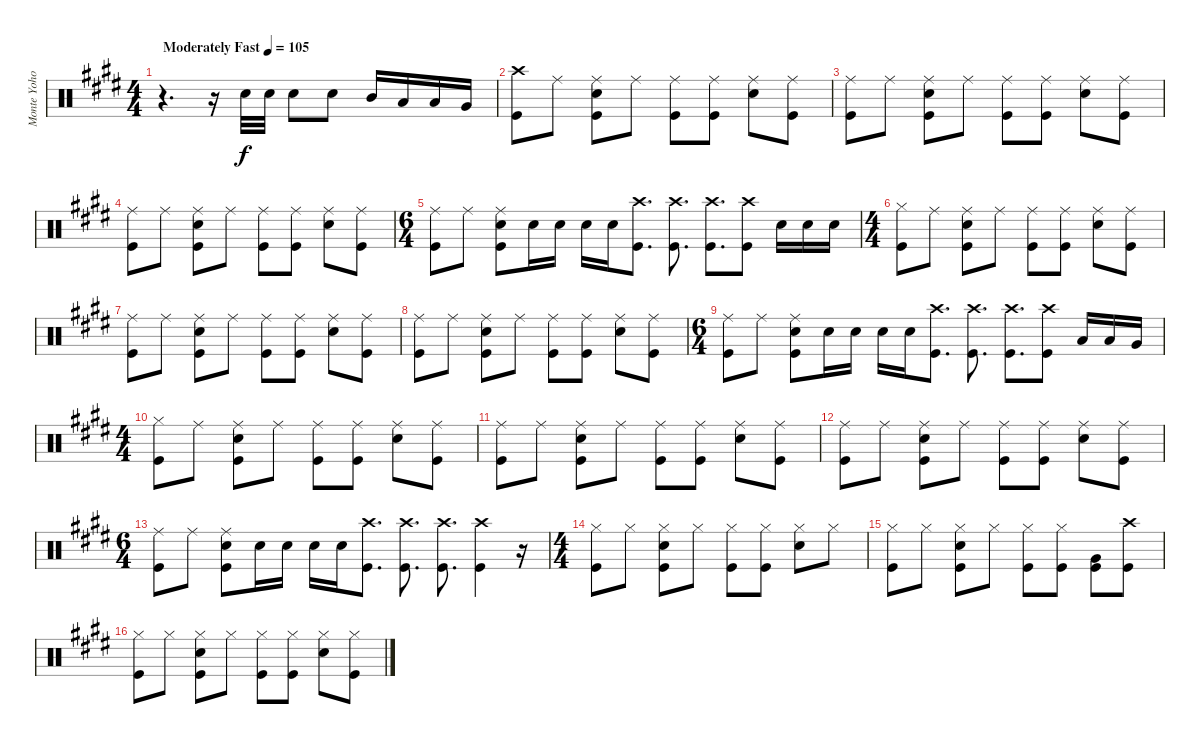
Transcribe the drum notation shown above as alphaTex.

\track ("Monte Yoho" "Monte Yoho") {instrument percussion}
\staff {score}
\articulation defaults
\ts (4 4)
\tempo (105 "Moderately Fast")
\clef neutral
\ks e
r.4{d dy f} r.16 "Snare (hit) 2".32 "Snare (hit) 2".32 "Snare (hit) 2".8 "Snare (hit) 2".8 "Mid Tom (hit)".16 "Low Tom (hit)".16 "Low Tom (hit)".16 "Very Low Tom (hit)".16 |
("Crash high (hit)" "Kick (hit)").8 "Ride (middle)".8 ("Ride (middle)" "Snare (hit) 2" "Kick (hit)").8 "Ride (middle)".8 ("Ride (middle)" "Kick (hit)").8 ("Ride (middle)" "Kick (hit)").8 ("Ride (middle)" "Snare (hit) 2").8 ("Ride (middle)" "Kick (hit)").8 |
("Ride (middle)" "Kick (hit)").8 "Ride (middle)".8 ("Ride (middle)" "Snare (hit) 2" "Kick (hit)").8 "Ride (middle)".8 ("Ride (middle)" "Kick (hit)").8 ("Ride (middle)" "Kick (hit)").8 ("Ride (middle)" "Snare (hit) 2").8 ("Ride (middle)" "Kick (hit)").8 |
("Ride (middle)" "Kick (hit)").8 "Ride (middle)".8 ("Ride (middle)" "Snare (hit) 2" "Kick (hit)").8 "Ride (middle)".8 ("Ride (middle)" "Kick (hit)").8 ("Ride (middle)" "Kick (hit)").8 ("Ride (middle)" "Snare (hit) 2").8 ("Ride (middle)" "Kick (hit)").8 |
\ts (6 4)
("Ride (middle)" "Kick (hit)").8 "Ride (middle)".8 ("Ride (middle)" "Snare (hit) 2" "Kick (hit)").8 "Snare (hit) 2".16 "Snare (hit) 2".16 "Snare (hit) 2".16 "Snare (hit) 2".16 ("Crash high (hit)" "Kick (hit)").8{d} ("Crash high (hit)" "Kick (hit)").8{d} ("Crash high (hit)" "Kick (hit)").8{d} ("Crash high (hit)" "Kick (hit)").8 "Snare (hit) 2".16 "Snare (hit) 2".16 "Snare (hit) 2".16 |
\ts (4 4)
("Hi-Hat (closed)" "Kick (hit)").8 "Ride (middle)".8 ("Ride (middle)" "Snare (hit) 2" "Kick (hit)").8 "Ride (middle)".8 ("Ride (middle)" "Kick (hit)").8 ("Ride (middle)" "Kick (hit)").8 ("Ride (middle)" "Snare (hit) 2").8 ("Ride (middle)" "Kick (hit)").8 |
("Ride (middle)" "Kick (hit)").8 "Ride (middle)".8 ("Ride (middle)" "Snare (hit) 2" "Kick (hit)").8 "Ride (middle)".8 ("Ride (middle)" "Kick (hit)").8 ("Ride (middle)" "Kick (hit)").8 ("Ride (middle)" "Snare (hit) 2").8 ("Ride (middle)" "Kick (hit)").8 |
("Ride (middle)" "Kick (hit)").8 "Ride (middle)".8 ("Ride (middle)" "Snare (hit) 2" "Kick (hit)").8 "Ride (middle)".8 ("Ride (middle)" "Kick (hit)").8 ("Ride (middle)" "Kick (hit)").8 ("Ride (middle)" "Snare (hit) 2").8 ("Ride (middle)" "Kick (hit)").8 |
\ts (6 4)
("Ride (middle)" "Kick (hit)").8 "Ride (middle)".8 ("Ride (middle)" "Snare (hit) 2" "Kick (hit)").8 "Snare (hit) 2".16 "Snare (hit) 2".16 "Snare (hit) 2".16 "Snare (hit) 2".16 ("Crash high (hit)" "Kick (hit)").8{d} ("Crash high (hit)" "Kick (hit)").8{d} ("Crash high (hit)" "Kick (hit)").8{d} ("Crash high (hit)" "Kick (hit)").8 "Low Tom (hit)".16 "Low Tom (hit)".16 "Very Low Tom (hit)".16 |
\ts (4 4)
("Hi-Hat (closed)" "Kick (hit)").8 "Ride (middle)".8 ("Ride (middle)" "Snare (hit) 2" "Kick (hit)").8 "Ride (middle)".8 ("Ride (middle)" "Kick (hit)").8 ("Ride (middle)" "Kick (hit)").8 ("Ride (middle)" "Snare (hit) 2").8 ("Ride (middle)" "Kick (hit)").8 |
("Ride (middle)" "Kick (hit)").8 "Ride (middle)".8 ("Ride (middle)" "Snare (hit) 2" "Kick (hit)").8 "Ride (middle)".8 ("Ride (middle)" "Kick (hit)").8 ("Ride (middle)" "Kick (hit)").8 ("Ride (middle)" "Snare (hit) 2").8 ("Ride (middle)" "Kick (hit)").8 |
("Ride (middle)" "Kick (hit)").8 "Ride (middle)".8 ("Ride (middle)" "Snare (hit) 2" "Kick (hit)").8 "Ride (middle)".8 ("Ride (middle)" "Kick (hit)").8 ("Ride (middle)" "Kick (hit)").8 ("Ride (middle)" "Snare (hit) 2").8 ("Ride (middle)" "Kick (hit)").8 |
\ts (6 4)
("Ride (middle)" "Kick (hit)").8 "Ride (middle)".8 ("Ride (middle)" "Snare (hit) 2" "Kick (hit)").8 "Snare (hit) 2".16 "Snare (hit) 2".16 "Snare (hit) 2".16 "Snare (hit) 2".16 ("Crash high (hit)" "Kick (hit)").8{d} ("Crash high (hit)" "Kick (hit)").8{d} ("Crash high (hit)" "Kick (hit)").8{d} ("Crash high (hit)" "Kick (hit)").4 r.16 |
\ts (4 4)
("Hi-Hat (closed)" "Kick (hit)").8 "Hi-Hat (closed)".8 ("Hi-Hat (closed)" "Snare (hit) 2" "Kick (hit)").8 "Hi-Hat (closed)".8 ("Hi-Hat (closed)" "Kick (hit)").8 ("Hi-Hat (closed)" "Kick (hit)").8 ("Hi-Hat (closed)" "Snare (hit) 2").8 "Hi-Hat (closed)".8 |
("Hi-Hat (closed)" "Kick (hit)").8 "Hi-Hat (closed)".8 ("Hi-Hat (closed)" "Snare (hit) 2" "Kick (hit)").8 "Hi-Hat (closed)".8 ("Hi-Hat (closed)" "Kick (hit)").8 ("Hi-Hat (closed)" "Kick (hit)").8 ("Very Low Tom (hit)" "Kick (hit)").8 ("Crash high (hit)" "Kick (hit)").8 |
("Hi-Hat (closed)" "Kick (hit)").8 "Hi-Hat (closed)".8 ("Hi-Hat (closed)" "Snare (hit) 2" "Kick (hit)").8 "Hi-Hat (closed)".8 ("Hi-Hat (closed)" "Kick (hit)").8 ("Hi-Hat (closed)" "Kick (hit)").8 ("Hi-Hat (closed)" "Snare (hit) 2").8 ("Hi-Hat (closed)" "Kick (hit)").8
